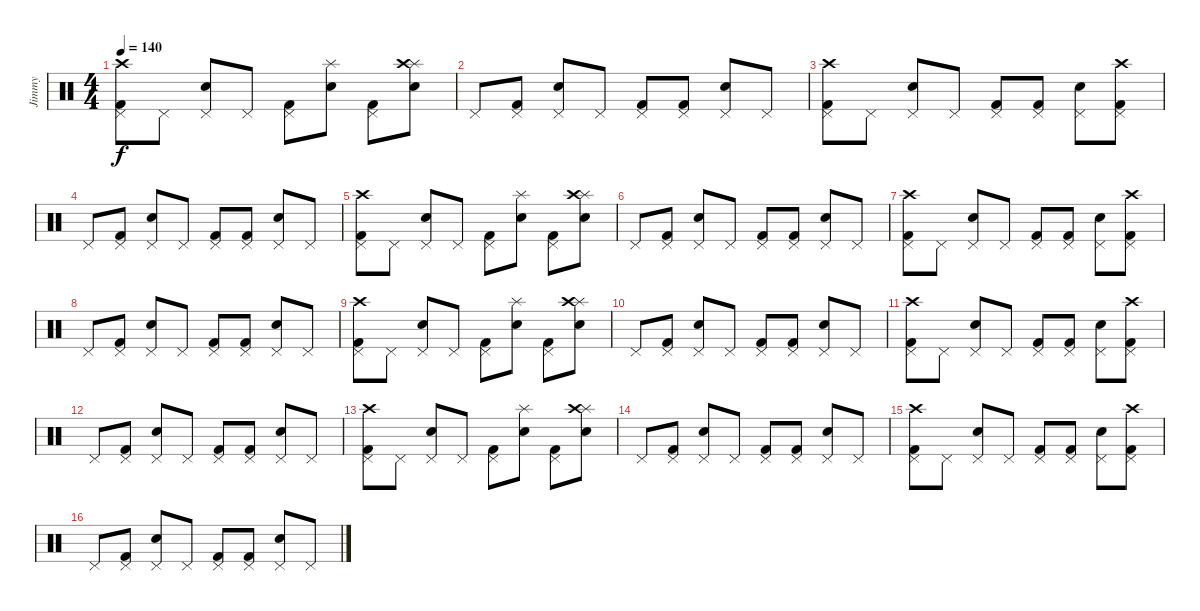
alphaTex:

\track ("Jimmy" "Jimmy") {instrument percussion}
\staff {score}
\articulation defaults
\ts (4 4)
\tempo 140
\clef neutral
\ks c
("Kick (hit) 2" "Pedal Hi-Hat (hit)" "Crash high (hit)").8{dy f} "Pedal Hi-Hat (hit)".8 ("Snare (hit) 2" "Pedal Hi-Hat (hit)").8 "Pedal Hi-Hat (hit)".8 ("Kick (hit) 2" "Pedal Hi-Hat (hit)").8 ("Snare (hit) 2" "Splash (hit)").8 ("Kick (hit) 2" "Pedal Hi-Hat (hit)").8 ("Snare (hit) 2" "Splash (hit)" "Crash high (hit)").8 |
"Pedal Hi-Hat (hit)".8 ("Kick (hit) 2" "Pedal Hi-Hat (hit)").8 ("Snare (hit) 2" "Pedal Hi-Hat (hit)").8 "Pedal Hi-Hat (hit)".8 ("Kick (hit) 2" "Pedal Hi-Hat (hit)").8 ("Kick (hit) 2" "Pedal Hi-Hat (hit)").8 ("Snare (hit) 2" "Pedal Hi-Hat (hit)").8 "Pedal Hi-Hat (hit)".8 |
("Kick (hit) 2" "Pedal Hi-Hat (hit)" "Crash high (hit)").8 "Pedal Hi-Hat (hit)".8 ("Snare (hit) 2" "Pedal Hi-Hat (hit)").8 "Pedal Hi-Hat (hit)".8 ("Kick (hit) 2" "Pedal Hi-Hat (hit)").8 ("Kick (hit) 2" "Pedal Hi-Hat (hit)").8 ("Snare (hit) 2" "Pedal Hi-Hat (hit)").8 ("Kick (hit) 2" "Pedal Hi-Hat (hit)" "Crash high (hit)").8 |
"Pedal Hi-Hat (hit)".8 ("Kick (hit) 2" "Pedal Hi-Hat (hit)").8 ("Snare (hit) 2" "Pedal Hi-Hat (hit)").8 "Pedal Hi-Hat (hit)".8 ("Kick (hit) 2" "Pedal Hi-Hat (hit)").8 ("Kick (hit) 2" "Pedal Hi-Hat (hit)").8 ("Snare (hit) 2" "Pedal Hi-Hat (hit)").8 "Pedal Hi-Hat (hit)".8 |
("Kick (hit) 2" "Pedal Hi-Hat (hit)" "Crash high (hit)").8 "Pedal Hi-Hat (hit)".8 ("Snare (hit) 2" "Pedal Hi-Hat (hit)").8 "Pedal Hi-Hat (hit)".8 ("Kick (hit) 2" "Pedal Hi-Hat (hit)").8 ("Snare (hit) 2" "Splash (hit)").8 ("Kick (hit) 2" "Pedal Hi-Hat (hit)").8 ("Snare (hit) 2" "Splash (hit)" "Crash high (hit)").8 |
"Pedal Hi-Hat (hit)".8 ("Kick (hit) 2" "Pedal Hi-Hat (hit)").8 ("Snare (hit) 2" "Pedal Hi-Hat (hit)").8 "Pedal Hi-Hat (hit)".8 ("Kick (hit) 2" "Pedal Hi-Hat (hit)").8 ("Kick (hit) 2" "Pedal Hi-Hat (hit)").8 ("Snare (hit) 2" "Pedal Hi-Hat (hit)").8 "Pedal Hi-Hat (hit)".8 |
("Kick (hit) 2" "Pedal Hi-Hat (hit)" "Crash high (hit)").8 "Pedal Hi-Hat (hit)".8 ("Snare (hit) 2" "Pedal Hi-Hat (hit)").8 "Pedal Hi-Hat (hit)".8 ("Kick (hit) 2" "Pedal Hi-Hat (hit)").8 ("Kick (hit) 2" "Pedal Hi-Hat (hit)").8 ("Snare (hit) 2" "Pedal Hi-Hat (hit)").8 ("Kick (hit) 2" "Pedal Hi-Hat (hit)" "Crash high (hit)").8 |
"Pedal Hi-Hat (hit)".8 ("Kick (hit) 2" "Pedal Hi-Hat (hit)").8 ("Snare (hit) 2" "Pedal Hi-Hat (hit)").8 "Pedal Hi-Hat (hit)".8 ("Kick (hit) 2" "Pedal Hi-Hat (hit)").8 ("Kick (hit) 2" "Pedal Hi-Hat (hit)").8 ("Snare (hit) 2" "Pedal Hi-Hat (hit)").8 "Pedal Hi-Hat (hit)".8 |
("Kick (hit) 2" "Pedal Hi-Hat (hit)" "Crash high (hit)").8 "Pedal Hi-Hat (hit)".8 ("Snare (hit) 2" "Pedal Hi-Hat (hit)").8 "Pedal Hi-Hat (hit)".8 ("Kick (hit) 2" "Pedal Hi-Hat (hit)").8 ("Snare (hit) 2" "Splash (hit)").8 ("Kick (hit) 2" "Pedal Hi-Hat (hit)").8 ("Snare (hit) 2" "Splash (hit)" "Crash high (hit)").8 |
"Pedal Hi-Hat (hit)".8 ("Kick (hit) 2" "Pedal Hi-Hat (hit)").8 ("Snare (hit) 2" "Pedal Hi-Hat (hit)").8 "Pedal Hi-Hat (hit)".8 ("Kick (hit) 2" "Pedal Hi-Hat (hit)").8 ("Kick (hit) 2" "Pedal Hi-Hat (hit)").8 ("Snare (hit) 2" "Pedal Hi-Hat (hit)").8 "Pedal Hi-Hat (hit)".8 |
("Kick (hit) 2" "Pedal Hi-Hat (hit)" "Crash high (hit)").8 "Pedal Hi-Hat (hit)".8 ("Snare (hit) 2" "Pedal Hi-Hat (hit)").8 "Pedal Hi-Hat (hit)".8 ("Kick (hit) 2" "Pedal Hi-Hat (hit)").8 ("Kick (hit) 2" "Pedal Hi-Hat (hit)").8 ("Snare (hit) 2" "Pedal Hi-Hat (hit)").8 ("Kick (hit) 2" "Pedal Hi-Hat (hit)" "Crash high (hit)").8 |
"Pedal Hi-Hat (hit)".8 ("Kick (hit) 2" "Pedal Hi-Hat (hit)").8 ("Snare (hit) 2" "Pedal Hi-Hat (hit)").8 "Pedal Hi-Hat (hit)".8 ("Kick (hit) 2" "Pedal Hi-Hat (hit)").8 ("Kick (hit) 2" "Pedal Hi-Hat (hit)").8 ("Snare (hit) 2" "Pedal Hi-Hat (hit)").8 "Pedal Hi-Hat (hit)".8 |
("Kick (hit) 2" "Pedal Hi-Hat (hit)" "Crash high (hit)").8 "Pedal Hi-Hat (hit)".8 ("Snare (hit) 2" "Pedal Hi-Hat (hit)").8 "Pedal Hi-Hat (hit)".8 ("Kick (hit) 2" "Pedal Hi-Hat (hit)").8 ("Snare (hit) 2" "Splash (hit)").8 ("Kick (hit) 2" "Pedal Hi-Hat (hit)").8 ("Snare (hit) 2" "Splash (hit)" "Crash high (hit)").8 |
"Pedal Hi-Hat (hit)".8 ("Kick (hit) 2" "Pedal Hi-Hat (hit)").8 ("Snare (hit) 2" "Pedal Hi-Hat (hit)").8 "Pedal Hi-Hat (hit)".8 ("Kick (hit) 2" "Pedal Hi-Hat (hit)").8 ("Kick (hit) 2" "Pedal Hi-Hat (hit)").8 ("Snare (hit) 2" "Pedal Hi-Hat (hit)").8 "Pedal Hi-Hat (hit)".8 |
("Kick (hit) 2" "Pedal Hi-Hat (hit)" "Crash high (hit)").8 "Pedal Hi-Hat (hit)".8 ("Snare (hit) 2" "Pedal Hi-Hat (hit)").8 "Pedal Hi-Hat (hit)".8 ("Kick (hit) 2" "Pedal Hi-Hat (hit)").8 ("Kick (hit) 2" "Pedal Hi-Hat (hit)").8 ("Snare (hit) 2" "Pedal Hi-Hat (hit)").8 ("Kick (hit) 2" "Pedal Hi-Hat (hit)" "Crash high (hit)").8 |
"Pedal Hi-Hat (hit)".8 ("Kick (hit) 2" "Pedal Hi-Hat (hit)").8 ("Snare (hit) 2" "Pedal Hi-Hat (hit)").8 "Pedal Hi-Hat (hit)".8 ("Kick (hit) 2" "Pedal Hi-Hat (hit)").8 ("Kick (hit) 2" "Pedal Hi-Hat (hit)").8 ("Snare (hit) 2" "Pedal Hi-Hat (hit)").8 "Pedal Hi-Hat (hit)".8
